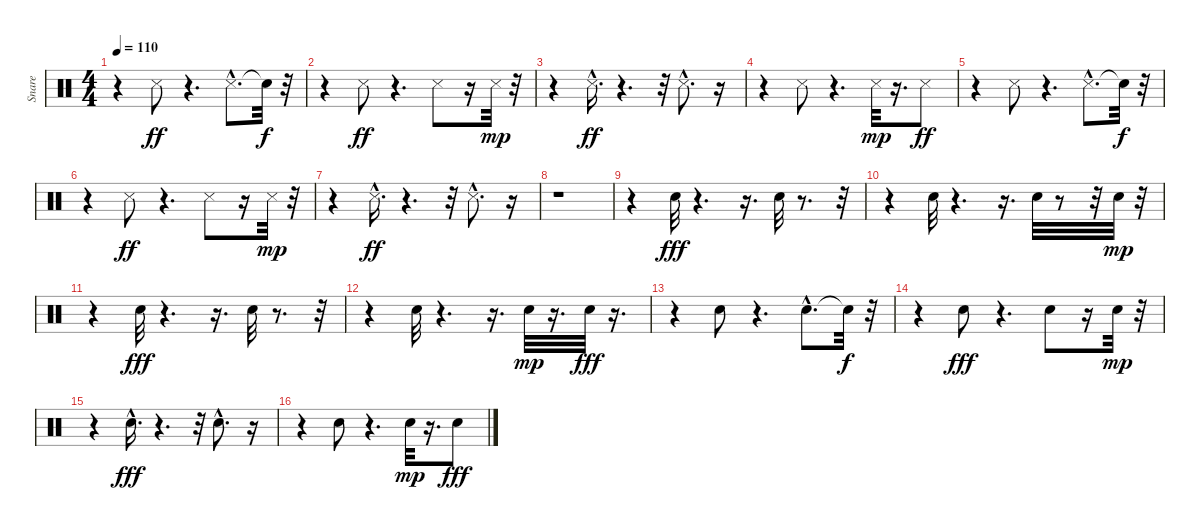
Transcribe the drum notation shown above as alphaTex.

\track ("Snare" "Snare") {instrument percussion}
\staff {score}
\articulation defaults
\ts (4 4)
\tempo 110
\clef neutral
\ks c
r.4{dy ff} "Snare (side stick) 3".8 r.4{d} "Snare (side stick) 3"{hac}.8{d} "Snare (hit)"{t}.32{dy f} r.32 |
r.4 "Snare (side stick) 3".8{dy ff} r.4{d} "Snare (side stick) 3".8 r.16 "Snare (side stick) 3".32{dy mp} r.32 |
r.4 "Snare (side stick) 3"{hac}.16{d dy ff} r.4{d} r.32 "Snare (side stick) 3"{hac}.8{d} r.16 |
r.4 "Snare (side stick) 3".8 r.4{d} "Snare (side stick) 3".32{dy mp} r.16{d} "Snare (side stick) 3".8{dy ff} |
r.4 "Snare (side stick) 3".8 r.4{d} "Snare (side stick) 3"{hac}.8{d} "Snare (hit)"{t}.32{dy f} r.32 |
r.4 "Snare (side stick) 3".8{dy ff} r.4{d} "Snare (side stick) 3".8 r.16 "Snare (side stick) 3".32{dy mp} r.32 |
r.4 "Snare (side stick) 3"{hac}.16{d dy ff} r.4{d} r.32 "Snare (side stick) 3"{hac}.8{d} r.16 |
r.1 |
r.4 "Snare (hit) 2".32{dy fff} r.4{d} r.16{d} "Snare (hit) 2".32 r.8{d} r.32 |
r.4 "Snare (hit) 2".32 r.4{d} r.16{d} "Snare (hit) 2".32 r.8 r.32 "Snare (hit) 2".32{dy mp} r.32 |
r.4 "Snare (hit) 2".32{dy fff} r.4{d} r.16{d} "Snare (hit) 2".32 r.8{d} r.32 |
r.4 "Snare (hit) 2".32 r.4{d} r.16{d} "Snare (hit) 2".32{dy mp} r.16{d} "Snare (hit) 2".32{dy fff} r.16{d} |
r.4 "Snare (hit) 2".8 r.4{d} "Snare (hit) 2"{hac}.8{d} "Snare (hit)"{t}.32{dy f} r.32 |
r.4 "Snare (hit) 2".8{dy fff} r.4{d} "Snare (hit) 2".8 r.16 "Snare (hit) 2".32{dy mp} r.32 |
r.4 "Snare (hit) 2"{hac}.16{d dy fff} r.4{d} r.32 "Snare (hit) 2"{hac}.8{d} r.16 |
r.4 "Snare (hit) 2".8 r.4{d} "Snare (hit) 2".32{dy mp} r.16{d} "Snare (hit) 2".8{dy fff}
